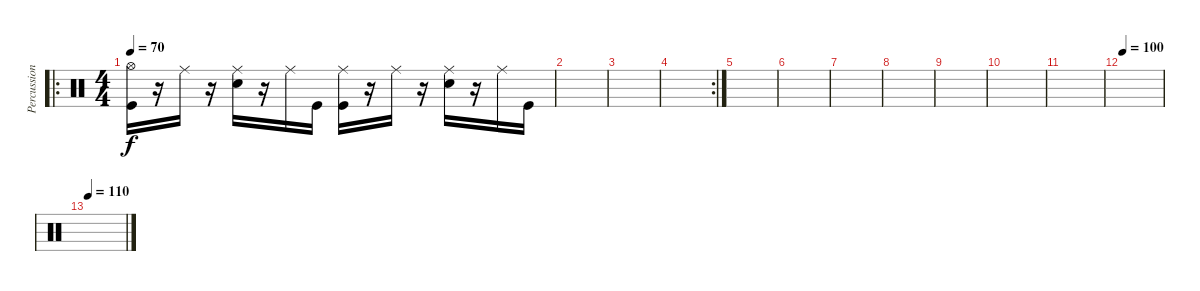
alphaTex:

\track ("Percussion" "Percussion") {instrument percussion}
\staff {score}
\articulation defaults
\ro
\ts (4 4)
\tempo 70
\clef neutral
\ks c
("Hi-Hat (open)" "Kick (hit)").16{dy f} r.16 "Ride (middle)".16 r.16 ("Ride (middle)" "Electric Snare (hit)").16 r.16 "Ride (middle)".16 "Kick (hit)".16 ("Ride (middle)" "Kick (hit)").16 r.16 "Ride (middle)".16 r.16 ("Ride (middle)" "Electric Snare (hit)").16 r.16 "Ride (middle)".16 "Kick (hit)".16 |
|
|
\rc 2
|
|
|
|
|
|
|
|
\tempo 100
|
\tempo 110
